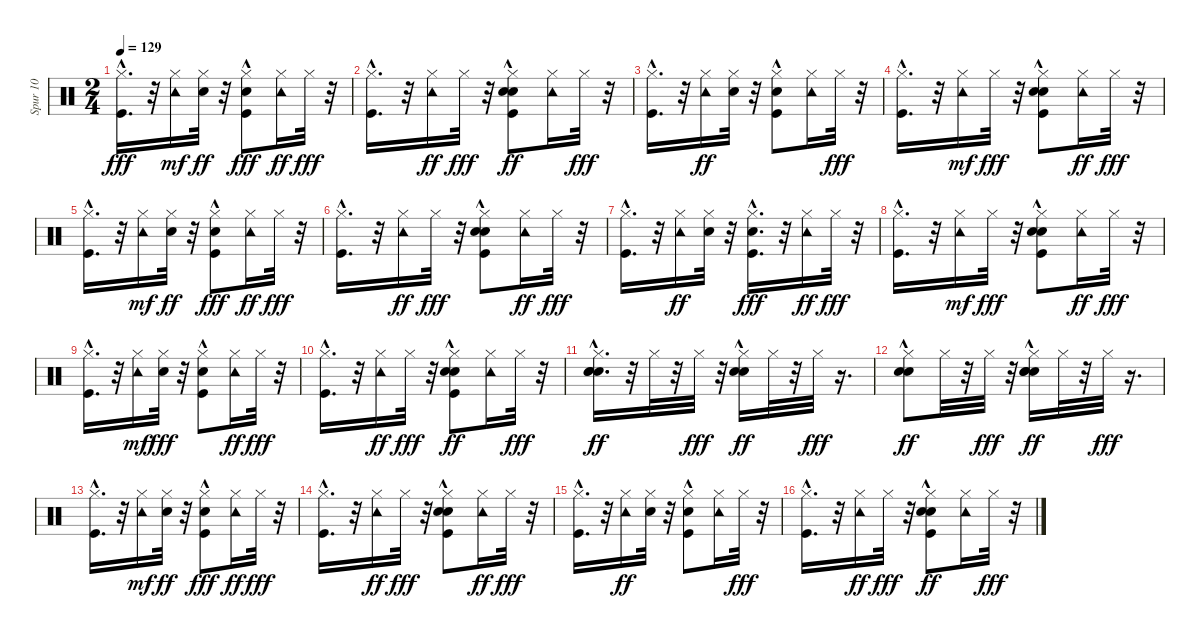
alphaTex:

\track ("Spur 10" "Spur 10") {instrument percussion}
\staff {score}
\articulation defaults
\ts (2 4)
\tempo 129
\clef neutral
\ks c
("Kick (hit)"{hac} "Hi-Hat (closed)").16{d dy fff} r.32 ("Hi-Hat (closed)" "Tambourine (hit)").16{dy mf} ("Hi-Hat (closed)" "Snare (hit) 2").32{dy ff} r.32 ("Hand Clap (hit)" "Hi-Hat (closed)" "Kick (hit)"{hac}).8{dy fff} ("Tambourine (hit)" "Hi-Hat (closed)").16{dy ff} "Hi-Hat (closed)".32{dy fff} r.32 |
("Hi-Hat (closed)" "Kick (hit)"{hac}).16{d} r.32 ("Tambourine (hit)" "Hi-Hat (closed)").16{dy ff} "Hi-Hat (closed)".32{dy fff} r.32 ("Hand Clap (hit)" "Hi-Hat (closed)" "Kick (hit)"{hac} "Snare (hit) 2").8{dy ff} ("Hi-Hat (closed)" "Tambourine (hit)").16 "Hi-Hat (closed)".32{dy fff} r.32 |
("Hi-Hat (closed)" "Kick (hit)"{hac}).16{d} r.32 ("Tambourine (hit)" "Hi-Hat (closed)").16{dy ff} ("Hi-Hat (closed)" "Snare (hit) 2").32 r.32 ("Kick (hit)"{hac} "Hi-Hat (closed)" "Hand Clap (hit)").8 ("Tambourine (hit)" "Hi-Hat (closed)").16 "Hi-Hat (closed)".32{dy fff} r.32 |
("Kick (hit)"{hac} "Hi-Hat (closed)").16{d} r.32 ("Hi-Hat (closed)" "Tambourine (hit)").16{dy mf} "Hi-Hat (closed)".32{dy fff} r.32 ("Snare (hit) 2" "Hi-Hat (closed)" "Hand Clap (hit)" "Kick (hit)"{hac}).8 ("Hi-Hat (closed)" "Tambourine (hit)").16{dy ff} "Hi-Hat (closed)".32{dy fff} r.32 |
("Kick (hit)"{hac} "Hi-Hat (closed)").16{d} r.32 ("Hi-Hat (closed)" "Tambourine (hit)").16{dy mf} ("Hi-Hat (closed)" "Snare (hit) 2").32{dy ff} r.32 ("Hand Clap (hit)"{hac} "Hi-Hat (closed)" "Kick (hit)"{hac}).8{dy fff} ("Tambourine (hit)" "Hi-Hat (closed)").16{dy ff} "Hi-Hat (closed)".32{dy fff} r.32 |
("Kick (hit)"{hac} "Hi-Hat (closed)").16{d} r.32 ("Tambourine (hit)" "Hi-Hat (closed)").16{dy ff} "Hi-Hat (closed)".32{dy fff} r.32 ("Snare (hit) 2" "Hand Clap (hit)" "Kick (hit)"{hac} "Hi-Hat (closed)").8 ("Tambourine (hit)" "Hi-Hat (closed)").16{dy ff} "Hi-Hat (closed)".32{dy fff} r.32 |
("Hi-Hat (closed)" "Kick (hit)"{hac}).16{d} r.32 ("Tambourine (hit)" "Hi-Hat (closed)").16{dy ff} ("Hi-Hat (closed)" "Snare (hit) 2").32 r.32 ("Hand Clap (hit)" "Kick (hit)"{hac} "Hi-Hat (closed)").16{d dy fff} r.32 ("Tambourine (hit)" "Hi-Hat (closed)").16{dy ff} "Hi-Hat (closed)".32{dy fff} r.32 |
("Hi-Hat (closed)" "Kick (hit)"{hac}).16{d} r.32 ("Hi-Hat (closed)" "Tambourine (hit)").16{dy mf} "Hi-Hat (closed)".32{dy fff} r.32 ("Hand Clap (hit)" "Hi-Hat (closed)" "Snare (hit) 2" "Kick (hit)"{hac}).8 ("Tambourine (hit)" "Hi-Hat (closed)").16{dy ff} "Hi-Hat (closed)".32{dy fff} r.32 |
("Hi-Hat (closed)" "Kick (hit)"{hac}).16{d} r.32 ("Hi-Hat (closed)" "Tambourine (hit)").16{dy mf} ("Snare (hit) 2" "Hi-Hat (closed)").32{dy fff} r.32 ("Hand Clap (hit)"{hac} "Kick (hit)"{hac} "Hi-Hat (closed)").8 ("Hi-Hat (closed)" "Tambourine (hit)").16{dy ff} "Hi-Hat (closed)".32{dy fff} r.32 |
("Hi-Hat (closed)" "Kick (hit)"{hac}).16{d} r.32 ("Tambourine (hit)" "Hi-Hat (closed)").16{dy ff} "Hi-Hat (closed)".32{dy fff} r.32 ("Hi-Hat (closed)" "Kick (hit)"{hac} "Snare (hit) 2" "Hand Clap (hit)").8{dy ff} ("Hi-Hat (closed)" "Tambourine (hit)").16 "Hi-Hat (closed)".32{dy fff} r.32 |
("Hand Clap (hit)"{hac} "Hi-Hat (closed)" "Snare (hit) 2"{hac} "Hand Clap (hit)"{hac}).16{d dy ff} r.32 "Hi-Hat (closed)".32 r.32 "Hi-Hat (closed)".32{dy fff} r.32 ("Hand Clap (hit)"{hac} "Snare (hit) 2"{hac} "Hi-Hat (closed)").16{dy ff} "Hi-Hat (closed)".32 r.32 "Hi-Hat (closed)".32{dy fff} r.16{d} |
("Hand Clap (hit)" "Hi-Hat (closed)" "Snare (hit) 2"{hac}).8{dy ff} "Hi-Hat (closed)".32 r.32 "Hi-Hat (closed)".32{dy fff} r.32 ("Snare (hit) 2"{hac} "Hand Clap (hit)" "Hand Clap (hit)" "Hi-Hat (closed)").16{dy ff} "Hi-Hat (closed)".32 r.32 "Hi-Hat (closed)".32{dy fff} r.16{d} |
("Kick (hit)"{hac} "Hi-Hat (closed)").16{d} r.32 ("Hi-Hat (closed)" "Tambourine (hit)").16{dy mf} ("Hi-Hat (closed)" "Snare (hit) 2").32{dy ff} r.32 ("Hand Clap (hit)" "Kick (hit)"{hac} "Hi-Hat (closed)").8{dy fff} ("Tambourine (hit)" "Hi-Hat (closed)").16{dy ff} "Hi-Hat (closed)".32{dy fff} r.32 |
("Kick (hit)"{hac} "Hi-Hat (closed)").16{d} r.32 ("Tambourine (hit)" "Hi-Hat (closed)").16{dy ff} "Hi-Hat (closed)".32{dy fff} r.32 ("Hand Clap (hit)" "Snare (hit) 2" "Kick (hit)"{hac} "Hi-Hat (closed)").8 ("Tambourine (hit)" "Hi-Hat (closed)").16{dy ff} "Hi-Hat (closed)".32{dy fff} r.32 |
("Hi-Hat (closed)" "Kick (hit)"{hac}).16{d} r.32 ("Tambourine (hit)" "Hi-Hat (closed)").16{dy ff} ("Hi-Hat (closed)" "Snare (hit) 2").32 r.32 ("Kick (hit)"{hac} "Hand Clap (hit)"{hac} "Hi-Hat (closed)").8 ("Tambourine (hit)" "Hi-Hat (closed)").16 "Hi-Hat (closed)".32{dy fff} r.32 |
("Kick (hit)"{hac} "Hi-Hat (closed)").16{d} r.32 ("Tambourine (hit)" "Hi-Hat (closed)").16{dy ff} "Hi-Hat (closed)".32{dy fff} r.32 ("Snare (hit) 2" "Kick (hit)"{hac} "Hand Clap (hit)"{hac} "Hi-Hat (closed)").8{dy ff} ("Hi-Hat (closed)" "Tambourine (hit)").16 "Hi-Hat (closed)".32{dy fff} r.32
